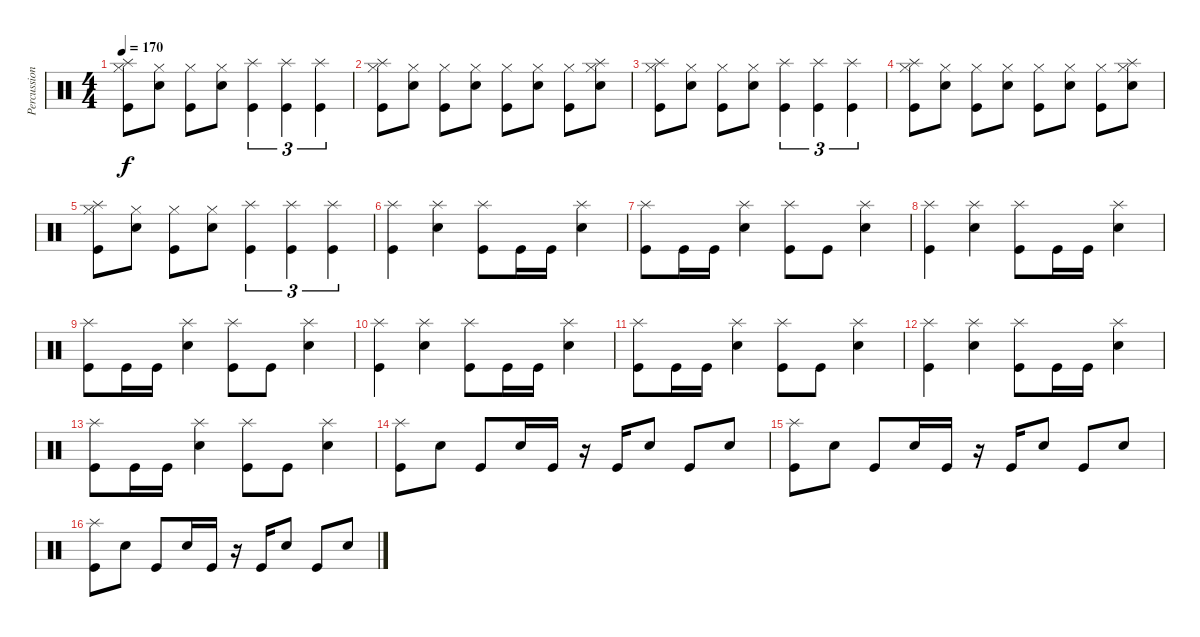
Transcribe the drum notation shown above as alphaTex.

\track ("Percussion" "Percussion") {instrument percussion}
\staff {score}
\articulation defaults
\ts (4 4)
\tempo 170
\clef neutral
\ks c
("Splash (hit)" "Hi-Hat (closed)" "Kick (hit)").8{dy f} ("Hi-Hat (closed)" "Electric Snare (hit)").8 ("Hi-Hat (closed)" "Kick (hit)").8 ("Hi-Hat (closed)" "Electric Snare (hit)").8 ("Splash (hit)" "Kick (hit)").4{tu (3 2)} ("Splash (hit)" "Kick (hit)").4{tu (3 2)} ("Splash (hit)" "Kick (hit)").4{tu (3 2)} |
("Splash (hit)" "Hi-Hat (closed)" "Kick (hit)").8 ("Hi-Hat (closed)" "Electric Snare (hit)").8 ("Hi-Hat (closed)" "Kick (hit)").8 ("Hi-Hat (closed)" "Electric Snare (hit)").8 ("Hi-Hat (closed)" "Kick (hit)").8 ("Hi-Hat (closed)" "Electric Snare (hit)").8 ("Hi-Hat (closed)" "Kick (hit)").8 ("Splash (hit)" "Hi-Hat (closed)" "Electric Snare (hit)").8 |
("Splash (hit)" "Hi-Hat (closed)" "Kick (hit)").8 ("Hi-Hat (closed)" "Electric Snare (hit)").8 ("Hi-Hat (closed)" "Kick (hit)").8 ("Hi-Hat (closed)" "Electric Snare (hit)").8 ("Splash (hit)" "Kick (hit)").4{tu (3 2)} ("Splash (hit)" "Kick (hit)").4{tu (3 2)} ("Splash (hit)" "Kick (hit)").4{tu (3 2)} |
("Splash (hit)" "Hi-Hat (closed)" "Kick (hit)").8 ("Hi-Hat (closed)" "Electric Snare (hit)").8 ("Hi-Hat (closed)" "Kick (hit)").8 ("Hi-Hat (closed)" "Electric Snare (hit)").8 ("Hi-Hat (closed)" "Kick (hit)").8 ("Hi-Hat (closed)" "Electric Snare (hit)").8 ("Hi-Hat (closed)" "Kick (hit)").8 ("Splash (hit)" "Hi-Hat (closed)" "Electric Snare (hit)").8 |
("Splash (hit)" "Hi-Hat (closed)" "Kick (hit)").8 ("Hi-Hat (closed)" "Electric Snare (hit)").8 ("Hi-Hat (closed)" "Kick (hit)").8 ("Hi-Hat (closed)" "Electric Snare (hit)").8 ("Splash (hit)" "Kick (hit)").4{tu (3 2)} ("Splash (hit)" "Kick (hit)").4{tu (3 2)} ("Splash (hit)" "Kick (hit)").4{tu (3 2)} |
("Splash (hit)" "Kick (hit)").4 ("Splash (hit)" "Electric Snare (hit)").4 ("Splash (hit)" "Kick (hit)").8 "Kick (hit)".16 "Kick (hit)".16 ("Splash (hit)" "Electric Snare (hit)").4 |
("Splash (hit)" "Kick (hit)").8 "Kick (hit)".16 "Kick (hit)".16 ("Splash (hit)" "Electric Snare (hit)").4 ("Splash (hit)" "Kick (hit)").8 "Kick (hit)".8 ("Splash (hit)" "Electric Snare (hit)").4 |
("Splash (hit)" "Kick (hit)").4 ("Splash (hit)" "Electric Snare (hit)").4 ("Splash (hit)" "Kick (hit)").8 "Kick (hit)".16 "Kick (hit)".16 ("Splash (hit)" "Electric Snare (hit)").4 |
("Splash (hit)" "Kick (hit)").8 "Kick (hit)".16 "Kick (hit)".16 ("Splash (hit)" "Electric Snare (hit)").4 ("Splash (hit)" "Kick (hit)").8 "Kick (hit)".8 ("Splash (hit)" "Electric Snare (hit)").4 |
("Splash (hit)" "Kick (hit)").4 ("Splash (hit)" "Electric Snare (hit)").4 ("Splash (hit)" "Kick (hit)").8 "Kick (hit)".16 "Kick (hit)".16 ("Splash (hit)" "Electric Snare (hit)").4 |
("Splash (hit)" "Kick (hit)").8 "Kick (hit)".16 "Kick (hit)".16 ("Splash (hit)" "Electric Snare (hit)").4 ("Splash (hit)" "Kick (hit)").8 "Kick (hit)".8 ("Splash (hit)" "Electric Snare (hit)").4 |
("Splash (hit)" "Kick (hit)").4 ("Splash (hit)" "Electric Snare (hit)").4 ("Splash (hit)" "Kick (hit)").8 "Kick (hit)".16 "Kick (hit)".16 ("Splash (hit)" "Electric Snare (hit)").4 |
("Splash (hit)" "Kick (hit)").8 "Kick (hit)".16 "Kick (hit)".16 ("Splash (hit)" "Electric Snare (hit)").4 ("Splash (hit)" "Kick (hit)").8 "Kick (hit)".8 ("Splash (hit)" "Electric Snare (hit)").4 |
("Splash (hit)" "Kick (hit)").8 "Electric Snare (hit)".8 "Kick (hit)".8 "Electric Snare (hit)".16 "Kick (hit)".16 r.16 "Kick (hit)".16 "Electric Snare (hit)".8 "Kick (hit)".8 "Electric Snare (hit)".8 |
("Splash (hit)" "Kick (hit)").8 "Electric Snare (hit)".8 "Kick (hit)".8 "Electric Snare (hit)".16 "Kick (hit)".16 r.16 "Kick (hit)".16 "Electric Snare (hit)".8 "Kick (hit)".8 "Electric Snare (hit)".8 |
("Splash (hit)" "Kick (hit)").8 "Electric Snare (hit)".8 "Kick (hit)".8 "Electric Snare (hit)".16 "Kick (hit)".16 r.16 "Kick (hit)".16 "Electric Snare (hit)".8 "Kick (hit)".8 "Electric Snare (hit)".8
